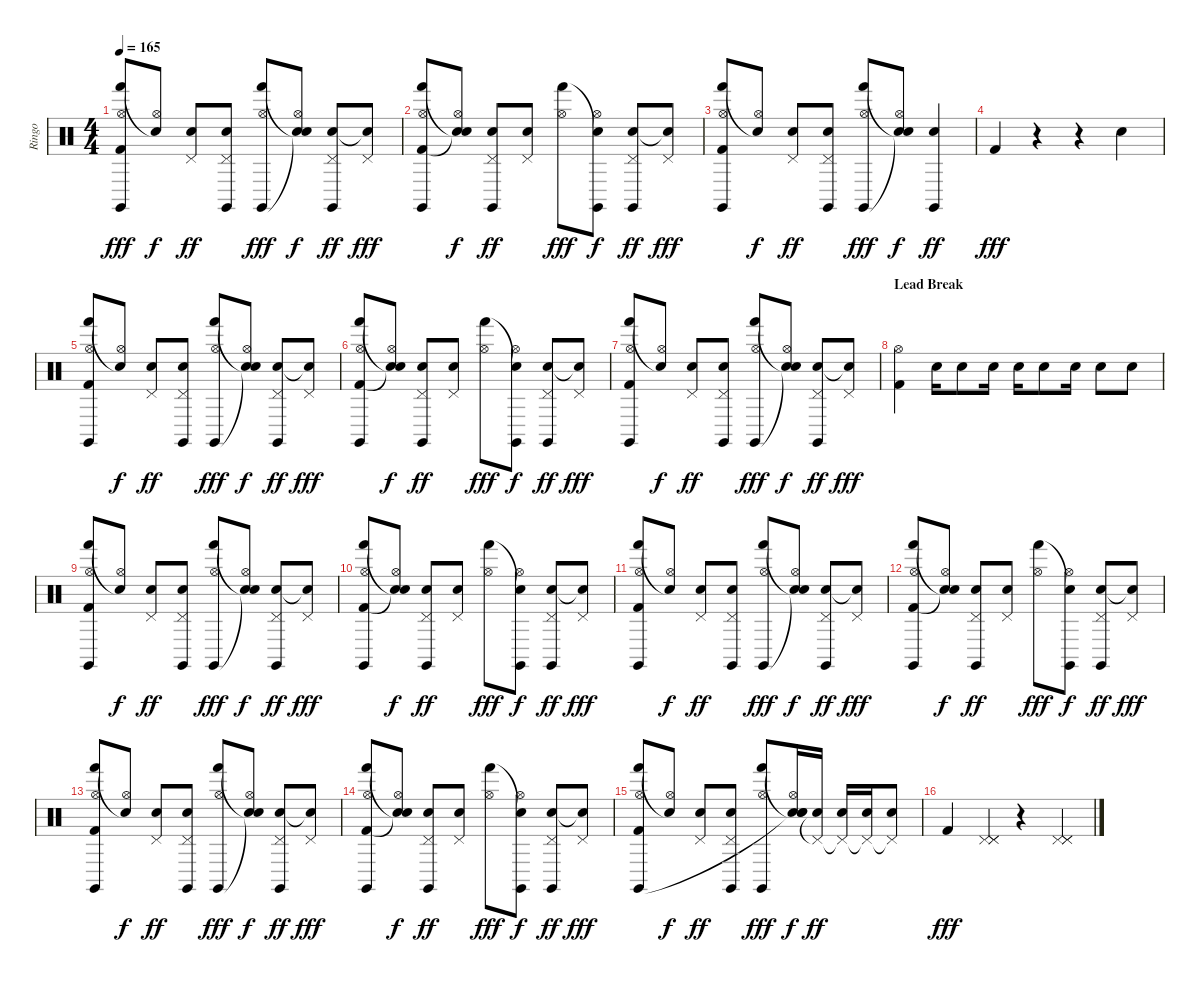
\track ("Ringo" "Ringo") {instrument percussion}
\staff {score}
\articulation defaults
\ts (4 4)
\tempo 165
\clef neutral
\ks c
("Hand (hit)" "Hi-Hat (open)" "Kick (hit) 2" "Claves (hit)").8{dy fff} ("Snare (hit)"{t} "Hi-Hat (open)").8{dy f} ("Pedal Hi-Hat (hit)" "Snare (hit) 2").8{dy ff} ("Pedal Hi-Hat (hit)" "Snare (hit) 2" "Claves (hit)").8 ("Hand (hit)" "Hi-Hat (open)" "Claves (hit)").8{dy fff} ("Snare (hit)"{t} "Hi-Hat (open)" "Snare (hit)"{t}).8{dy f} ("Pedal Hi-Hat (hit)" "Snare (hit) 2" "Claves (hit)").8{dy ff} ("Pedal Hi-Hat (hit)" "Snare (hit)"{t}).8{dy fff} |
("Hand (hit)" "Hi-Hat (open)" "Kick (hit) 2" "Claves (hit)").8 ("Snare (hit)"{t} "Hi-Hat (open)" "Snare (hit)"{t}).8{dy f} ("Pedal Hi-Hat (hit)" "Snare (hit) 2" "Claves (hit)").8{dy ff} ("Pedal Hi-Hat (hit)" "Snare (hit) 2").8 ("Hand (hit)" "Hi-Hat (open)").8{dy fff} ("Snare (hit)"{t} "Hi-Hat (open)" "Claves (hit)").8{dy f} ("Pedal Hi-Hat (hit)" "Snare (hit) 2" "Claves (hit)").8{dy ff} ("Pedal Hi-Hat (hit)" "Snare (hit)"{t}).8{dy fff} |
("Hand (hit)" "Hi-Hat (open)" "Kick (hit) 2" "Claves (hit)").8 ("Snare (hit)"{t} "Hi-Hat (open)").8{dy f} ("Pedal Hi-Hat (hit)" "Snare (hit) 2").8{dy ff} ("Pedal Hi-Hat (hit)" "Snare (hit) 2" "Claves (hit)").8 ("Hand (hit)" "Hi-Hat (open)" "Claves (hit)").8{dy fff} ("Snare (hit)"{t} "Hi-Hat (open)" "Snare (hit)"{t}).8{dy f} ("Snare (hit) 2" "Claves (hit)").4{dy ff} |
"Kick (hit) 2".4{dy fff} r.4 r.4 "Snare (hit) 2".4 |
("Hand (hit)" "Hi-Hat (open)" "Kick (hit) 2" "Claves (hit)").8 ("Snare (hit)"{t} "Hi-Hat (open)").8{dy f} ("Pedal Hi-Hat (hit)" "Snare (hit) 2").8{dy ff} ("Pedal Hi-Hat (hit)" "Snare (hit) 2" "Claves (hit)").8 ("Hand (hit)" "Hi-Hat (open)" "Claves (hit)").8{dy fff} ("Snare (hit)"{t} "Hi-Hat (open)" "Snare (hit)"{t}).8{dy f} ("Pedal Hi-Hat (hit)" "Snare (hit) 2" "Claves (hit)").8{dy ff} ("Pedal Hi-Hat (hit)" "Snare (hit)"{t}).8{dy fff} |
("Hand (hit)" "Hi-Hat (open)" "Kick (hit) 2" "Claves (hit)").8 ("Snare (hit)"{t} "Hi-Hat (open)" "Snare (hit)"{t}).8{dy f} ("Pedal Hi-Hat (hit)" "Snare (hit) 2" "Claves (hit)").8{dy ff} ("Pedal Hi-Hat (hit)" "Snare (hit) 2").8 ("Hand (hit)" "Hi-Hat (open)").8{dy fff} ("Snare (hit)"{t} "Hi-Hat (open)" "Claves (hit)").8{dy f} ("Pedal Hi-Hat (hit)" "Snare (hit) 2" "Claves (hit)").8{dy ff} ("Pedal Hi-Hat (hit)" "Snare (hit)"{t}).8{dy fff} |
("Hand (hit)" "Hi-Hat (open)" "Kick (hit) 2" "Claves (hit)").8 ("Snare (hit)"{t} "Hi-Hat (open)").8{dy f} ("Pedal Hi-Hat (hit)" "Snare (hit) 2").8{dy ff} ("Pedal Hi-Hat (hit)" "Snare (hit) 2" "Claves (hit)").8 ("Hand (hit)" "Hi-Hat (open)" "Claves (hit)").8{dy fff} ("Snare (hit)"{t} "Hi-Hat (open)" "Snare (hit)"{t}).8{dy f} ("Pedal Hi-Hat (hit)" "Snare (hit) 2" "Claves (hit)").8{dy ff} ("Pedal Hi-Hat (hit)" "Snare (hit)"{t}).8{dy fff} |
\section ("" "Lead Break")
("Hi-Hat (open)" "Kick (hit) 2").4 "Snare (hit) 2".16 "Snare (hit) 2".8 "Snare (hit) 2".16 "Snare (hit) 2".16 "Snare (hit) 2".8 "Snare (hit) 2".16 "Snare (hit) 2".8 "Snare (hit) 2".8 |
("Hand (hit)" "Hi-Hat (open)" "Kick (hit) 2" "Claves (hit)").8 ("Snare (hit)"{t} "Hi-Hat (open)").8{dy f} ("Pedal Hi-Hat (hit)" "Snare (hit) 2").8{dy ff} ("Pedal Hi-Hat (hit)" "Snare (hit) 2" "Claves (hit)").8 ("Hand (hit)" "Hi-Hat (open)" "Claves (hit)").8{dy fff} ("Snare (hit)"{t} "Hi-Hat (open)" "Snare (hit)"{t}).8{dy f} ("Pedal Hi-Hat (hit)" "Snare (hit) 2" "Claves (hit)").8{dy ff} ("Pedal Hi-Hat (hit)" "Snare (hit)"{t}).8{dy fff} |
("Hand (hit)" "Hi-Hat (open)" "Kick (hit) 2" "Claves (hit)").8 ("Snare (hit)"{t} "Hi-Hat (open)" "Snare (hit)"{t}).8{dy f} ("Pedal Hi-Hat (hit)" "Snare (hit) 2" "Claves (hit)").8{dy ff} ("Pedal Hi-Hat (hit)" "Snare (hit) 2").8 ("Hand (hit)" "Hi-Hat (open)").8{dy fff} ("Snare (hit)"{t} "Hi-Hat (open)" "Claves (hit)").8{dy f} ("Pedal Hi-Hat (hit)" "Snare (hit) 2" "Claves (hit)").8{dy ff} ("Pedal Hi-Hat (hit)" "Snare (hit)"{t}).8{dy fff} |
("Hand (hit)" "Hi-Hat (open)" "Kick (hit) 2" "Claves (hit)").8 ("Snare (hit)"{t} "Hi-Hat (open)").8{dy f} ("Pedal Hi-Hat (hit)" "Snare (hit) 2").8{dy ff} ("Pedal Hi-Hat (hit)" "Snare (hit) 2" "Claves (hit)").8 ("Hand (hit)" "Hi-Hat (open)" "Claves (hit)").8{dy fff} ("Snare (hit)"{t} "Hi-Hat (open)" "Snare (hit)"{t}).8{dy f} ("Pedal Hi-Hat (hit)" "Snare (hit) 2" "Claves (hit)").8{dy ff} ("Pedal Hi-Hat (hit)" "Snare (hit)"{t}).8{dy fff} |
("Hand (hit)" "Hi-Hat (open)" "Kick (hit) 2" "Claves (hit)").8 ("Snare (hit)"{t} "Hi-Hat (open)" "Snare (hit)"{t}).8{dy f} ("Pedal Hi-Hat (hit)" "Snare (hit) 2" "Claves (hit)").8{dy ff} ("Pedal Hi-Hat (hit)" "Snare (hit) 2").8 ("Hand (hit)" "Hi-Hat (open)").8{dy fff} ("Snare (hit)"{t} "Hi-Hat (open)" "Claves (hit)").8{dy f} ("Pedal Hi-Hat (hit)" "Snare (hit) 2" "Claves (hit)").8{dy ff} ("Pedal Hi-Hat (hit)" "Snare (hit)"{t}).8{dy fff} |
("Hand (hit)" "Hi-Hat (open)" "Kick (hit) 2" "Claves (hit)").8 ("Snare (hit)"{t} "Hi-Hat (open)").8{dy f} ("Pedal Hi-Hat (hit)" "Snare (hit) 2").8{dy ff} ("Pedal Hi-Hat (hit)" "Snare (hit) 2" "Claves (hit)").8 ("Hand (hit)" "Hi-Hat (open)" "Claves (hit)").8{dy fff} ("Snare (hit)"{t} "Hi-Hat (open)" "Snare (hit)"{t}).8{dy f} ("Pedal Hi-Hat (hit)" "Snare (hit) 2" "Claves (hit)").8{dy ff} ("Pedal Hi-Hat (hit)" "Snare (hit)"{t}).8{dy fff} |
("Hand (hit)" "Hi-Hat (open)" "Kick (hit) 2" "Claves (hit)").8 ("Snare (hit)"{t} "Hi-Hat (open)" "Snare (hit)"{t}).8{dy f} ("Pedal Hi-Hat (hit)" "Snare (hit) 2" "Claves (hit)").8{dy ff} ("Pedal Hi-Hat (hit)" "Snare (hit) 2").8 ("Hand (hit)" "Hi-Hat (open)").8{dy fff} ("Snare (hit)"{t} "Hi-Hat (open)" "Claves (hit)").8{dy f} ("Pedal Hi-Hat (hit)" "Snare (hit) 2" "Claves (hit)").8{dy ff} ("Pedal Hi-Hat (hit)" "Snare (hit)"{t}).8{dy fff} |
("Hand (hit)" "Hi-Hat (open)" "Kick (hit) 2" "Claves (hit)").8 ("Snare (hit)"{t} "Hi-Hat (open)").8{dy f} ("Pedal Hi-Hat (hit)" "Snare (hit) 2").8{dy ff} ("Pedal Hi-Hat (hit)" "Snare (hit) 2" "Claves (hit)").8 ("Hand (hit)" "Hi-Hat (open)" "Claves (hit)").8{dy fff} ("Snare (hit)"{t} "Hi-Hat (open)" "Snare (hit) 2" "Snare (hit)"{t}).16{dy f} ("Pedal Hi-Hat (hit)"{t} "Snare (hit) 2").16{dy ff} ("Pedal Hi-Hat (hit)"{t} "Snare (hit) 2").16 ("Pedal Hi-Hat (hit)"{t} "Snare (hit) 2").16 ("Pedal Hi-Hat (hit)"{t} "Snare (hit) 2").8 |
"Kick (hit) 2".4{dy fff} ("Pedal Hi-Hat (hit)" "Pedal Hi-Hat (hit)" "Pedal Hi-Hat (hit)").4 r.4 ("Pedal Hi-Hat (hit)" "Pedal Hi-Hat (hit)" "Pedal Hi-Hat (hit)").4
